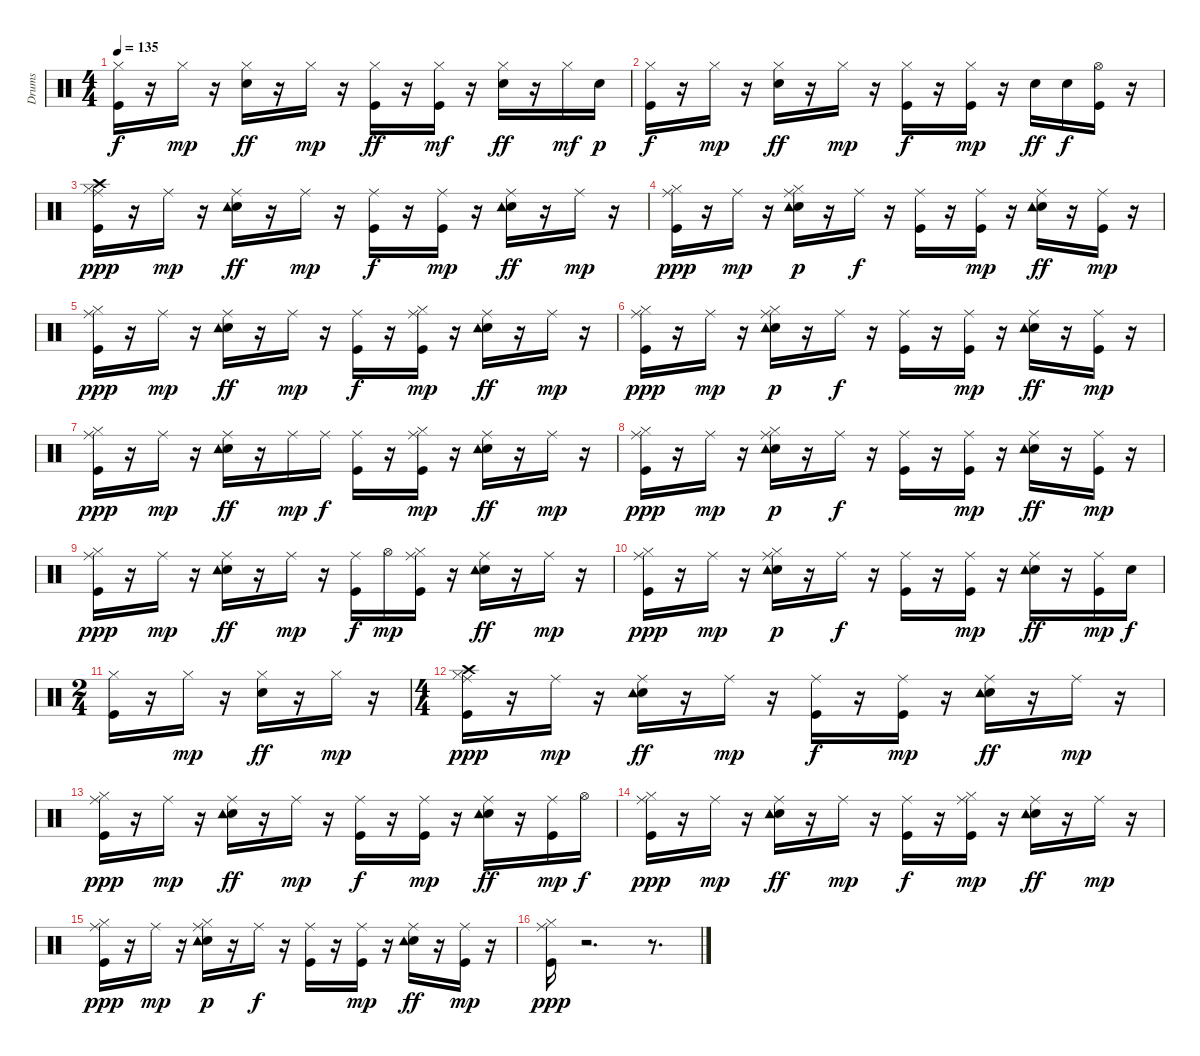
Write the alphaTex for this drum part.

\track ("Drums   " "Drums   ") {instrument percussion}
\staff {score}
\articulation defaults
\ts (4 4)
\tempo 135
\clef neutral
\ks c
("Kick (hit)" "Hi-Hat (closed)").16{dy f} r.16 "Hi-Hat (closed)".16{dy mp} r.16 ("Snare (hit) 2" "Hi-Hat (closed)").16{dy ff} r.16 "Hi-Hat (closed)".16{dy mp} r.16 ("Kick (hit)" "Hi-Hat (closed)").16{dy ff} r.16 ("Kick (hit)" "Hi-Hat (closed)").16{dy mf} r.16 ("Snare (hit) 2" "Hi-Hat (closed)").16{dy ff} r.16 "Hi-Hat (closed)".16{dy mf} "Snare (hit) 2".16{dy p} |
("Kick (hit)" "Hi-Hat (closed)").16{dy f} r.16 "Hi-Hat (closed)".16{dy mp} r.16 ("Snare (hit) 2" "Hi-Hat (closed)").16{dy ff} r.16 "Hi-Hat (closed)".16{dy mp} r.16 ("Kick (hit)" "Hi-Hat (closed)").16{dy f} r.16 ("Kick (hit)" "Hi-Hat (closed)").16{dy mp} r.16 "Snare (hit) 2".16{dy ff} "Snare (hit) 2".16{dy f} ("Kick (hit)" "Hi-Hat (open)").16 r.16 |
("Kick (hit)" "Hi-Hat (closed)" "Ride (middle)" "Crash high (hit)").16{dy ppp} r.16 "Ride (middle)".16{dy mp} r.16 ("Snare (hit) 2" "Ride (middle)" "Tambourine (hit)").16{dy ff} r.16 "Ride (middle)".16{dy mp} r.16 ("Kick (hit)" "Ride (middle)").16{dy f} r.16 ("Kick (hit)" "Ride (middle)").16{dy mp} r.16 ("Snare (hit) 2" "Ride (middle)" "Tambourine (hit)").16{dy ff} r.16 "Ride (middle)".16{dy mp} r.16 |
("Kick (hit)" "Hi-Hat (closed)" "Ride (middle)").16{dy ppp} r.16 "Ride (middle)".16{dy mp} r.16 ("Snare (hit) 2" "Hi-Hat (closed)" "Ride (middle)" "Tambourine (hit)").16{dy p} r.16 "Ride (middle)".16{dy f} r.16 ("Kick (hit)" "Ride (middle)").16 r.16 ("Kick (hit)" "Ride (middle)").16{dy mp} r.16 ("Snare (hit) 2" "Ride (middle)" "Tambourine (hit)").16{dy ff} r.16 ("Kick (hit)" "Ride (middle)").16{dy mp} r.16 |
("Kick (hit)" "Hi-Hat (closed)" "Ride (middle)").16{dy ppp} r.16 "Ride (middle)".16{dy mp} r.16 ("Snare (hit) 2" "Ride (middle)" "Tambourine (hit)").16{dy ff} r.16 "Ride (middle)".16{dy mp} r.16 ("Kick (hit)" "Ride (middle)").16{dy f} r.16 ("Kick (hit)" "Hi-Hat (closed)" "Ride (middle)").16{dy mp} r.16 ("Snare (hit) 2" "Ride (middle)" "Tambourine (hit)").16{dy ff} r.16 "Ride (middle)".16{dy mp} r.16 |
("Kick (hit)" "Hi-Hat (closed)" "Ride (middle)").16{dy ppp} r.16 "Ride (middle)".16{dy mp} r.16 ("Snare (hit) 2" "Hi-Hat (closed)" "Ride (middle)" "Tambourine (hit)").16{dy p} r.16 "Ride (middle)".16{dy f} r.16 ("Kick (hit)" "Ride (middle)").16 r.16 ("Kick (hit)" "Ride (middle)").16{dy mp} r.16 ("Snare (hit) 2" "Ride (middle)" "Tambourine (hit)").16{dy ff} r.16 ("Kick (hit)" "Ride (middle)").16{dy mp} r.16 |
("Kick (hit)" "Hi-Hat (closed)" "Ride (middle)").16{dy ppp} r.16 "Ride (middle)".16{dy mp} r.16 ("Snare (hit) 2" "Ride (middle)" "Tambourine (hit)").16{dy ff} r.16 "Ride (middle)".16{dy mp} "Ride (middle)".16{dy f} ("Kick (hit)" "Ride (middle)").16 r.16 ("Kick (hit)" "Hi-Hat (closed)" "Ride (middle)").16{dy mp} r.16 ("Snare (hit) 2" "Ride (middle)" "Tambourine (hit)").16{dy ff} r.16 "Ride (middle)".16{dy mp} r.16 |
("Kick (hit)" "Hi-Hat (closed)" "Ride (middle)").16{dy ppp} r.16 "Ride (middle)".16{dy mp} r.16 ("Snare (hit) 2" "Hi-Hat (closed)" "Ride (middle)" "Tambourine (hit)").16{dy p} r.16 "Ride (middle)".16{dy f} r.16 ("Kick (hit)" "Ride (middle)").16 r.16 ("Kick (hit)" "Ride (middle)").16{dy mp} r.16 ("Snare (hit) 2" "Ride (middle)" "Tambourine (hit)").16{dy ff} r.16 ("Kick (hit)" "Ride (middle)").16{dy mp} r.16 |
("Kick (hit)" "Hi-Hat (closed)" "Ride (middle)").16{dy ppp} r.16 "Ride (middle)".16{dy mp} r.16 ("Snare (hit) 2" "Ride (middle)" "Tambourine (hit)").16{dy ff} r.16 "Ride (middle)".16{dy mp} r.16 ("Kick (hit)" "Ride (middle)").16{dy f} "Hi-Hat (open)".16{dy mp} ("Kick (hit)" "Hi-Hat (closed)" "Ride (middle)").16 r.16 ("Snare (hit) 2" "Ride (middle)" "Tambourine (hit)").16{dy ff} r.16 "Ride (middle)".16{dy mp} r.16 |
("Kick (hit)" "Hi-Hat (closed)" "Ride (middle)").16{dy ppp} r.16 "Ride (middle)".16{dy mp} r.16 ("Snare (hit) 2" "Hi-Hat (closed)" "Ride (middle)" "Tambourine (hit)").16{dy p} r.16 "Ride (middle)".16{dy f} r.16 ("Kick (hit)" "Ride (middle)").16 r.16 ("Kick (hit)" "Ride (middle)").16{dy mp} r.16 ("Snare (hit) 2" "Ride (middle)" "Tambourine (hit)").16{dy ff} r.16 ("Kick (hit)" "Ride (middle)").16{dy mp} "Snare (hit) 2".16{dy f} |
\ts (2 4)
("Kick (hit)" "Hi-Hat (closed)").16 r.16 "Hi-Hat (closed)".16{dy mp} r.16 ("Snare (hit) 2" "Hi-Hat (closed)").16{dy ff} r.16 "Hi-Hat (closed)".16{dy mp} r.16 |
\ts (4 4)
("Kick (hit)" "Hi-Hat (closed)" "Ride (middle)" "Crash high (hit)").16{dy ppp} r.16 "Ride (middle)".16{dy mp} r.16 ("Snare (hit) 2" "Ride (middle)" "Tambourine (hit)").16{dy ff} r.16 "Ride (middle)".16{dy mp} r.16 ("Kick (hit)" "Ride (middle)").16{dy f} r.16 ("Kick (hit)" "Ride (middle)").16{dy mp} r.16 ("Snare (hit) 2" "Ride (middle)" "Tambourine (hit)").16{dy ff} r.16 "Ride (middle)".16{dy mp} r.16 |
("Kick (hit)" "Hi-Hat (closed)" "Ride (middle)").16{dy ppp} r.16 "Ride (middle)".16{dy mp} r.16 ("Snare (hit) 2" "Ride (middle)" "Tambourine (hit)").16{dy ff} r.16 "Ride (middle)".16{dy mp} r.16 ("Kick (hit)" "Ride (middle)").16{dy f} r.16 ("Kick (hit)" "Ride (middle)").16{dy mp} r.16 ("Snare (hit) 2" "Ride (middle)" "Tambourine (hit)").16{dy ff} r.16 ("Kick (hit)" "Ride (middle)").16{dy mp} "Hi-Hat (open)".16{dy f} |
("Kick (hit)" "Hi-Hat (closed)" "Ride (middle)").16{dy ppp} r.16 "Ride (middle)".16{dy mp} r.16 ("Snare (hit) 2" "Ride (middle)" "Tambourine (hit)").16{dy ff} r.16 "Ride (middle)".16{dy mp} r.16 ("Kick (hit)" "Ride (middle)").16{dy f} r.16 ("Kick (hit)" "Hi-Hat (closed)" "Ride (middle)").16{dy mp} r.16 ("Snare (hit) 2" "Ride (middle)" "Tambourine (hit)").16{dy ff} r.16 "Ride (middle)".16{dy mp} r.16 |
("Kick (hit)" "Hi-Hat (closed)" "Ride (middle)").16{dy ppp} r.16 "Ride (middle)".16{dy mp} r.16 ("Snare (hit) 2" "Hi-Hat (closed)" "Ride (middle)" "Tambourine (hit)").16{dy p} r.16 "Ride (middle)".16{dy f} r.16 ("Kick (hit)" "Ride (middle)").16 r.16 ("Kick (hit)" "Ride (middle)").16{dy mp} r.16 ("Snare (hit) 2" "Ride (middle)" "Tambourine (hit)").16{dy ff} r.16 ("Kick (hit)" "Ride (middle)").16{dy mp} r.16 |
("Kick (hit)" "Hi-Hat (closed)" "Ride (middle)").16{dy ppp} r.2{d} r.8{d}
